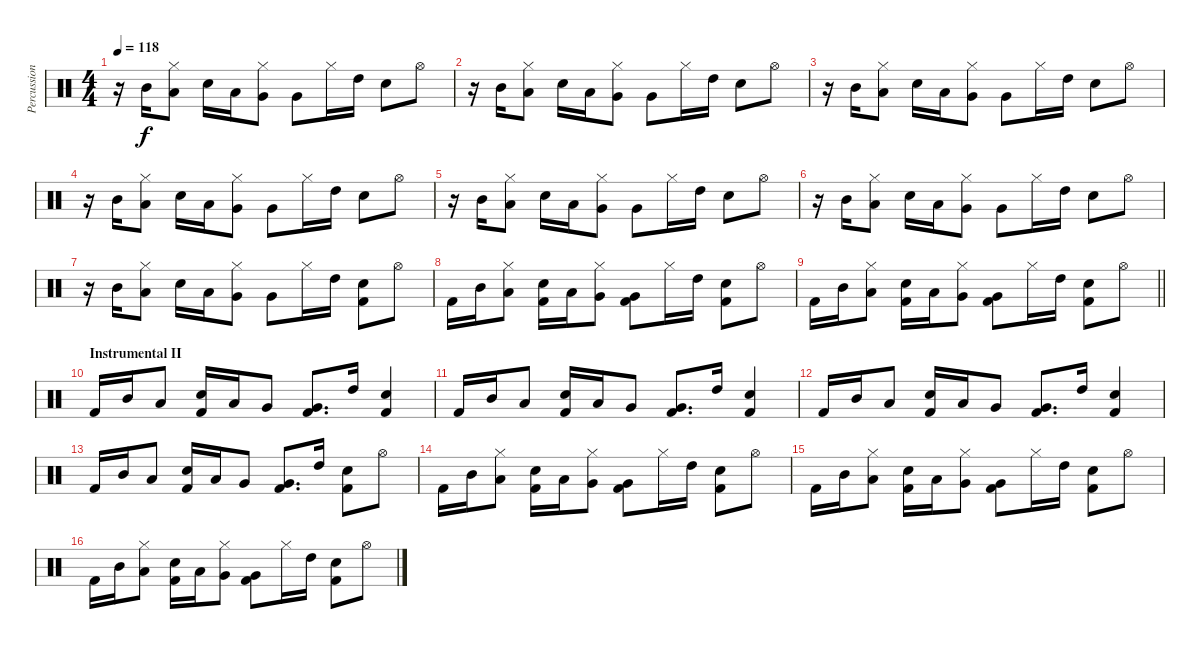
\track ("Percussion" "Percussion") {instrument percussion}
\staff {score}
\articulation defaults
\ts (4 4)
\tempo 118
\clef neutral
\ks c
r.16{dy f} "Mid Tom (hit)".16 ("Hi-Hat (closed)" "Low Tom (hit)").8 "Hand Clap (hit)".16 "Low Tom (hit)".16 ("Hi-Hat (closed)" "Very Low Tom (hit)").8 "Very Low Tom (hit)".8 "Hi-Hat (closed)".16 "High Tom (hit)".16 "Hand Clap (hit)".8 "Hi-Hat (open)".8 |
r.16 "Mid Tom (hit)".16 ("Hi-Hat (closed)" "Low Tom (hit)").8 "Hand Clap (hit)".16 "Low Tom (hit)".16 ("Hi-Hat (closed)" "Very Low Tom (hit)").8 "Very Low Tom (hit)".8 "Hi-Hat (closed)".16 "High Tom (hit)".16 "Hand Clap (hit)".8 "Hi-Hat (open)".8 |
r.16 "Mid Tom (hit)".16 ("Hi-Hat (closed)" "Low Tom (hit)").8 "Hand Clap (hit)".16 "Low Tom (hit)".16 ("Hi-Hat (closed)" "Very Low Tom (hit)").8 "Very Low Tom (hit)".8 "Hi-Hat (closed)".16 "High Tom (hit)".16 "Hand Clap (hit)".8 "Hi-Hat (open)".8 |
r.16 "Mid Tom (hit)".16 ("Hi-Hat (closed)" "Low Tom (hit)").8 "Hand Clap (hit)".16 "Low Tom (hit)".16 ("Hi-Hat (closed)" "Very Low Tom (hit)").8 "Very Low Tom (hit)".8 "Hi-Hat (closed)".16 "High Tom (hit)".16 "Hand Clap (hit)".8 "Hi-Hat (open)".8 |
r.16 "Mid Tom (hit)".16 ("Hi-Hat (closed)" "Low Tom (hit)").8 "Hand Clap (hit)".16 "Low Tom (hit)".16 ("Hi-Hat (closed)" "Very Low Tom (hit)").8 "Very Low Tom (hit)".8 "Hi-Hat (closed)".16 "High Tom (hit)".16 "Hand Clap (hit)".8 "Hi-Hat (open)".8 |
r.16 "Mid Tom (hit)".16 ("Hi-Hat (closed)" "Low Tom (hit)").8 "Hand Clap (hit)".16 "Low Tom (hit)".16 ("Hi-Hat (closed)" "Very Low Tom (hit)").8 "Very Low Tom (hit)".8 "Hi-Hat (closed)".16 "High Tom (hit)".16 "Hand Clap (hit)".8 "Hi-Hat (open)".8 |
r.16 "Mid Tom (hit)".16 ("Hi-Hat (closed)" "Low Tom (hit)").8 "Hand Clap (hit)".16 "Low Tom (hit)".16 ("Hi-Hat (closed)" "Very Low Tom (hit)").8 "Very Low Tom (hit)".8 "Hi-Hat (closed)".16 "High Tom (hit)".16 ("Hand Clap (hit)" "Kick (hit) 2").8 "Hi-Hat (open)".8 |
"Kick (hit) 2".16 "Mid Tom (hit)".16 ("Hi-Hat (closed)" "Low Tom (hit)").8 ("Hand Clap (hit)" "Kick (hit) 2").16 "Low Tom (hit)".16 ("Hi-Hat (closed)" "Very Low Tom (hit)").8 ("Very Low Tom (hit)" "Kick (hit) 2").8 "Hi-Hat (closed)".16 "High Tom (hit)".16 ("Hand Clap (hit)" "Kick (hit) 2").8 "Hi-Hat (open)".8 |
\barLineRight lightlight "Kick (hit) 2".16 "Mid Tom (hit)".16
("Hi-Hat (closed)" "Low Tom (hit)").8 ("Hand Clap (hit)" "Kick (hit) 2").16 "Low Tom (hit)".16 ("Hi-Hat (closed)" "Very Low Tom (hit)").8 ("Very Low Tom (hit)" "Kick (hit) 2").8 "Hi-Hat (closed)".16 "High Tom (hit)".16 ("Hand Clap (hit)" "Kick (hit) 2").8 "Hi-Hat (open)".8 |
\section ("" "Instrumental II")
"Kick (hit) 2".16 "Mid Tom (hit)".16 "Low Tom (hit)".8 ("Hand Clap (hit)" "Kick (hit) 2").16 "Low Tom (hit)".16 "Very Low Tom (hit)".8 ("Very Low Tom (hit)" "Kick (hit) 2").8{d} "High Tom (hit)".16 ("Hand Clap (hit)" "Kick (hit) 2").4 |
"Kick (hit) 2".16 "Mid Tom (hit)".16 "Low Tom (hit)".8 ("Hand Clap (hit)" "Kick (hit) 2").16 "Low Tom (hit)".16 "Very Low Tom (hit)".8 ("Very Low Tom (hit)" "Kick (hit) 2").8{d} "High Tom (hit)".16 ("Hand Clap (hit)" "Kick (hit) 2").4 |
"Kick (hit) 2".16 "Mid Tom (hit)".16 "Low Tom (hit)".8 ("Hand Clap (hit)" "Kick (hit) 2").16 "Low Tom (hit)".16 "Very Low Tom (hit)".8 ("Very Low Tom (hit)" "Kick (hit) 2").8{d} "High Tom (hit)".16 ("Hand Clap (hit)" "Kick (hit) 2").4 |
"Kick (hit) 2".16 "Mid Tom (hit)".16 "Low Tom (hit)".8 ("Hand Clap (hit)" "Kick (hit) 2").16 "Low Tom (hit)".16 "Very Low Tom (hit)".8 ("Very Low Tom (hit)" "Kick (hit) 2").8{d} "High Tom (hit)".16 ("Hand Clap (hit)" "Kick (hit) 2").8 "Hi-Hat (open)".8 |
"Kick (hit) 2".16 "Mid Tom (hit)".16 ("Hi-Hat (closed)" "Low Tom (hit)").8 ("Hand Clap (hit)" "Kick (hit) 2").16 "Low Tom (hit)".16 ("Hi-Hat (closed)" "Very Low Tom (hit)").8 ("Very Low Tom (hit)" "Kick (hit) 2").8 "Hi-Hat (closed)".16 "High Tom (hit)".16 ("Hand Clap (hit)" "Kick (hit) 2").8 "Hi-Hat (open)".8 |
"Kick (hit) 2".16 "Mid Tom (hit)".16 ("Hi-Hat (closed)" "Low Tom (hit)").8 ("Hand Clap (hit)" "Kick (hit) 2").16 "Low Tom (hit)".16 ("Hi-Hat (closed)" "Very Low Tom (hit)").8 ("Very Low Tom (hit)" "Kick (hit) 2").8 "Hi-Hat (closed)".16 "High Tom (hit)".16 ("Hand Clap (hit)" "Kick (hit) 2").8 "Hi-Hat (open)".8 |
"Kick (hit) 2".16 "Mid Tom (hit)".16 ("Hi-Hat (closed)" "Low Tom (hit)").8 ("Hand Clap (hit)" "Kick (hit) 2").16 "Low Tom (hit)".16 ("Hi-Hat (closed)" "Very Low Tom (hit)").8 ("Very Low Tom (hit)" "Kick (hit) 2").8 "Hi-Hat (closed)".16 "High Tom (hit)".16 ("Hand Clap (hit)" "Kick (hit) 2").8 "Hi-Hat (open)".8
